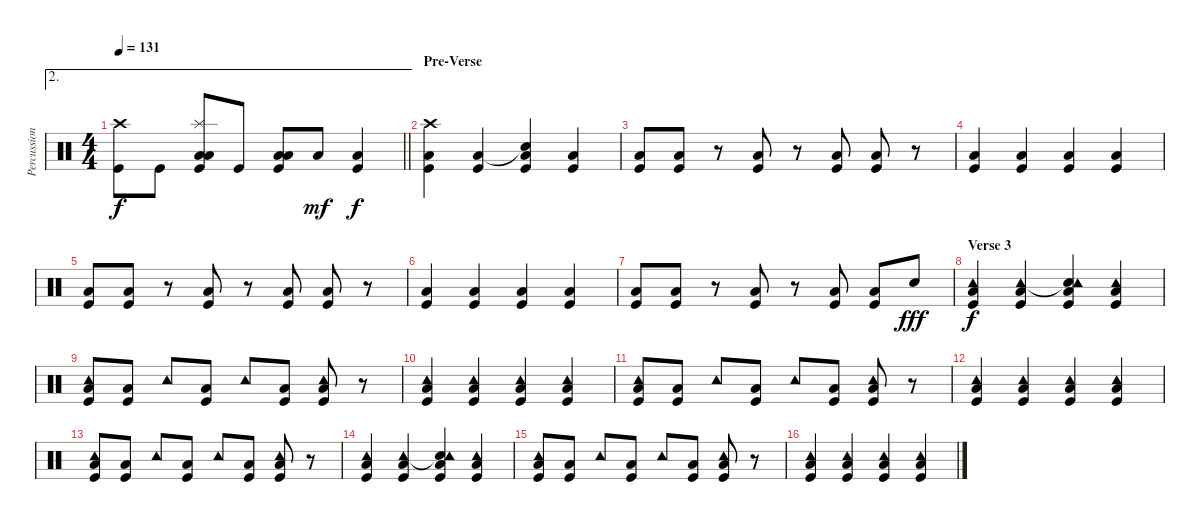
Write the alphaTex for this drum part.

\track ("Percussion" "Percussion") {instrument percussion}
\staff {score}
\articulation defaults
\ae 2
\ts (4 4)
\tempo 131
\clef neutral
\barLineRight lightlight
\ks c
("Crash high (hit)" "Kick (hit)").8{dy f} "Kick (hit)".8 ("Splash (hit)" "Low Tom (hit)" "Low Floor Tom (hit)" "Kick (hit)").8 "Kick (hit)".8 ("Low Tom (hit)" "Low Floor Tom (hit)" "Kick (hit)").8 "Low Floor Tom (hit)".8{dy mf} ("Low Tom (hit)" "Kick (hit)").4{dy f} |
\section ("" "Pre-Verse")
("Crash high (hit)" "Low Floor Tom (hit)" "Kick (hit)").4 ("Low Floor Tom (hit)" "Kick (hit)").4 ("Snare (hit)"{t} "Low Floor Tom (hit)" "Kick (hit)").4 ("Low Floor Tom (hit)" "Kick (hit)").4 |
("Low Floor Tom (hit)" "Kick (hit)").8 ("Low Floor Tom (hit)" "Kick (hit)").8 r.8 ("Low Floor Tom (hit)" "Kick (hit)").8 r.8 ("Low Floor Tom (hit)" "Kick (hit)").8 ("Low Floor Tom (hit)" "Kick (hit)").8 r.8 |
("Low Floor Tom (hit)" "Kick (hit)").4 ("Low Floor Tom (hit)" "Kick (hit)").4 ("Low Floor Tom (hit)" "Kick (hit)").4 ("Low Floor Tom (hit)" "Kick (hit)").4 |
("Low Floor Tom (hit)" "Kick (hit)").8 ("Low Floor Tom (hit)" "Kick (hit)").8 r.8 ("Low Floor Tom (hit)" "Kick (hit)").8 r.8 ("Low Floor Tom (hit)" "Kick (hit)").8 ("Low Floor Tom (hit)" "Kick (hit)").8 r.8 |
("Low Floor Tom (hit)" "Kick (hit)").4 ("Low Floor Tom (hit)" "Kick (hit)").4 ("Low Floor Tom (hit)" "Kick (hit)").4 ("Low Floor Tom (hit)" "Kick (hit)").4 |
("Low Floor Tom (hit)" "Kick (hit)").8 ("Low Floor Tom (hit)" "Kick (hit)").8 r.8 ("Low Floor Tom (hit)" "Kick (hit)").8 r.8 ("Low Floor Tom (hit)" "Kick (hit)").8 ("Low Floor Tom (hit)" "Kick (hit)").8 "Snare (hit) 2".8{dy fff} |
\section ("" "Verse 3")
("Tambourine (hit)" "Low Floor Tom (hit)" "Kick (hit)").4{dy f} ("Tambourine (hit)" "Low Floor Tom (hit)" "Kick (hit)").4 ("Snare (hit)"{t} "Tambourine (hit)" "Low Floor Tom (hit)" "Kick (hit)").4 ("Tambourine (hit)" "Low Floor Tom (hit)" "Kick (hit)").4 |
("Tambourine (hit)" "Low Floor Tom (hit)" "Kick (hit)").8 ("Low Floor Tom (hit)" "Kick (hit)").8 "Tambourine (hit)".8 ("Low Floor Tom (hit)" "Kick (hit)").8 "Tambourine (hit)".8 ("Low Floor Tom (hit)" "Kick (hit)").8 ("Tambourine (hit)" "Low Floor Tom (hit)" "Kick (hit)").8 r.8 |
("Tambourine (hit)" "Low Floor Tom (hit)" "Kick (hit)").4 ("Tambourine (hit)" "Low Floor Tom (hit)" "Kick (hit)").4 ("Tambourine (hit)" "Low Floor Tom (hit)" "Kick (hit)").4 ("Tambourine (hit)" "Low Floor Tom (hit)" "Kick (hit)").4 |
("Tambourine (hit)" "Low Floor Tom (hit)" "Kick (hit)").8 ("Low Floor Tom (hit)" "Kick (hit)").8 "Tambourine (hit)".8 ("Low Floor Tom (hit)" "Kick (hit)").8 "Tambourine (hit)".8 ("Low Floor Tom (hit)" "Kick (hit)").8 ("Tambourine (hit)" "Low Floor Tom (hit)" "Kick (hit)").8 r.8 |
("Tambourine (hit)" "Low Floor Tom (hit)" "Kick (hit)").4 ("Tambourine (hit)" "Low Floor Tom (hit)" "Kick (hit)").4 ("Tambourine (hit)" "Low Floor Tom (hit)" "Kick (hit)").4 ("Tambourine (hit)" "Low Floor Tom (hit)" "Kick (hit)").4 |
("Tambourine (hit)" "Low Floor Tom (hit)" "Kick (hit)").8 ("Low Floor Tom (hit)" "Kick (hit)").8 "Tambourine (hit)".8 ("Low Floor Tom (hit)" "Kick (hit)").8 "Tambourine (hit)".8 ("Low Floor Tom (hit)" "Kick (hit)").8 ("Tambourine (hit)" "Low Floor Tom (hit)" "Kick (hit)").8 r.8 |
("Tambourine (hit)" "Low Floor Tom (hit)" "Kick (hit)").4 ("Tambourine (hit)" "Low Floor Tom (hit)" "Kick (hit)").4 ("Snare (hit)"{t} "Tambourine (hit)" "Low Floor Tom (hit)" "Kick (hit)").4 ("Tambourine (hit)" "Low Floor Tom (hit)" "Kick (hit)").4 |
("Tambourine (hit)" "Low Floor Tom (hit)" "Kick (hit)").8 ("Low Floor Tom (hit)" "Kick (hit)").8 "Tambourine (hit)".8 ("Low Floor Tom (hit)" "Kick (hit)").8 "Tambourine (hit)".8 ("Low Floor Tom (hit)" "Kick (hit)").8 ("Tambourine (hit)" "Low Floor Tom (hit)" "Kick (hit)").8 r.8 |
("Tambourine (hit)" "Low Floor Tom (hit)" "Kick (hit)").4 ("Tambourine (hit)" "Low Floor Tom (hit)" "Kick (hit)").4 ("Tambourine (hit)" "Low Floor Tom (hit)" "Kick (hit)").4 ("Tambourine (hit)" "Low Floor Tom (hit)" "Kick (hit)").4
